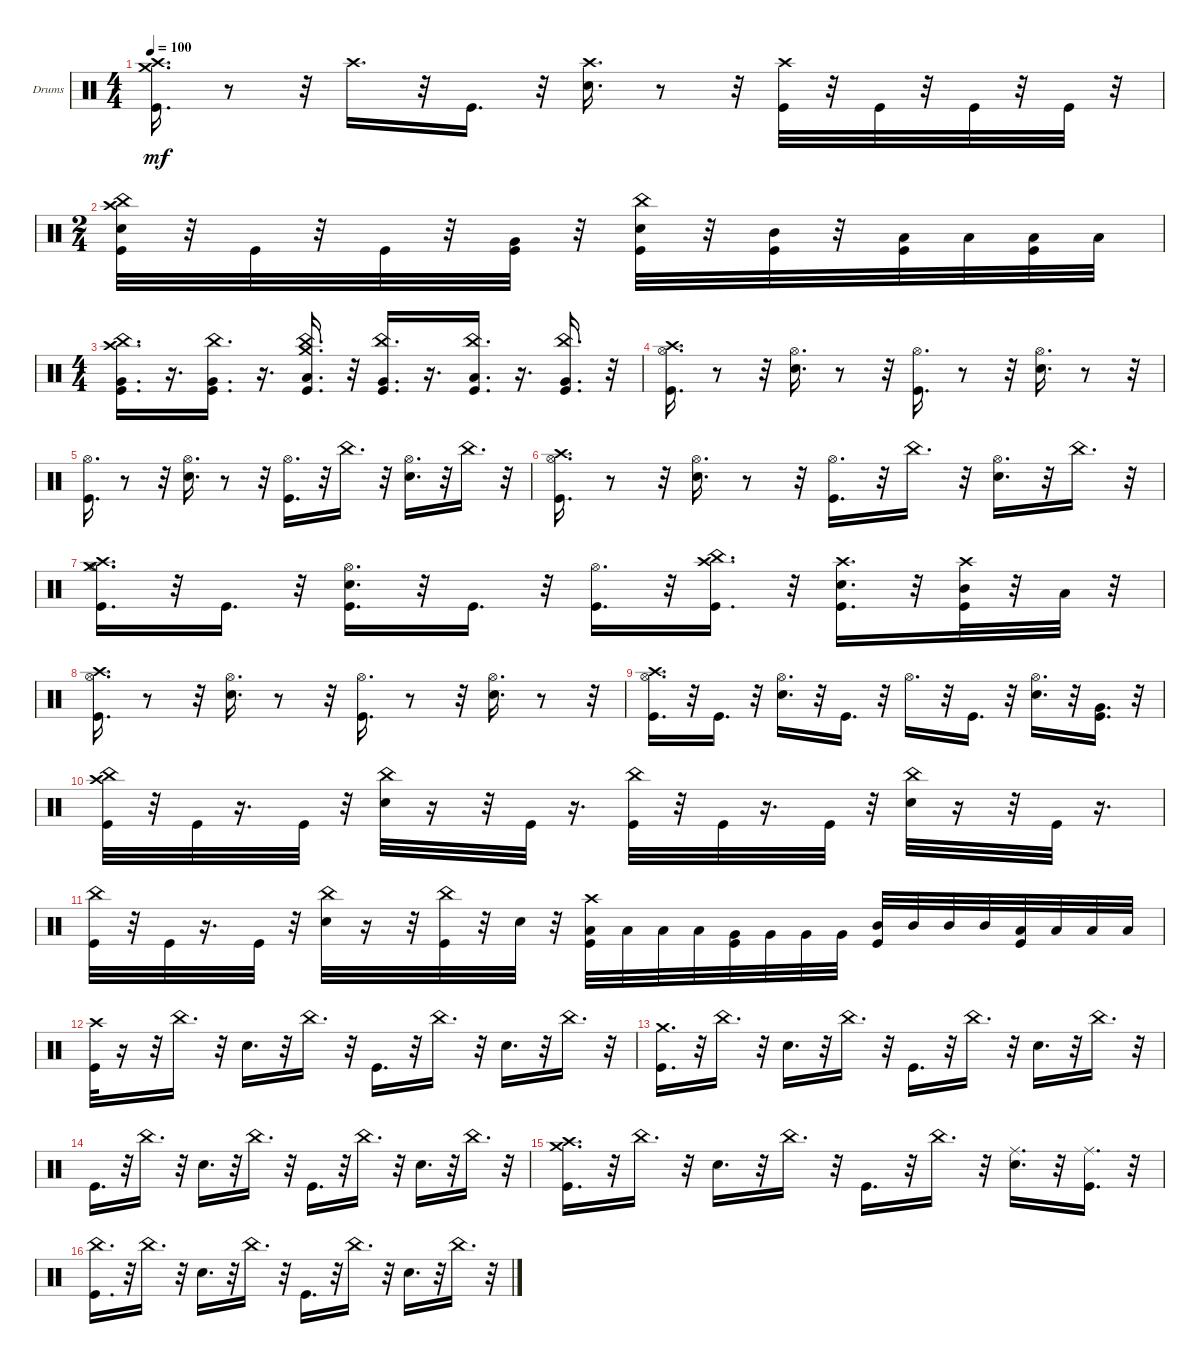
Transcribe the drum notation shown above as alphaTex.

\bracketExtendMode groupsimilarinstruments
\firstSystemTrackNameOrientation horizontal
\otherSystemsTrackNameOrientation horizontal
\track ("Drums" "Drums") {instrument percussion}
\staff {score}
\articulation defaults
\ts (4 4)
\tempo 100
\clef neutral
\ks c
("Crash high (hit)" "Kick (hit)" "Crash medium (hit)").16{d dy mf} r.8 r.32 "Crash high (hit)".16{d} r.32 "Kick (hit)".16{d} r.32 ("Crash high (hit)" "Snare (hit) 2").16{d} r.8 r.32 ("Crash high (hit)" "Kick (hit)").32 r.32 "Kick (hit)".32 r.32 "Kick (hit)".32 r.32 "Kick (hit)".32 r.32 |
\ts (2 4)
("Crash high (hit)" "China (hit)" "Snare (hit) 2" "Kick (hit)").32 r.32 "Kick (hit)".32 r.32 "Kick (hit)".32 r.32 ("Very Low Tom (hit)" "Kick (hit)").32 r.32 ("China (hit)" "Snare (hit) 2" "Kick (hit)").32 r.32 ("Mid Tom (hit)" "Kick (hit)").32 r.32 ("Low Tom (hit)" "Kick (hit)").32 "Low Tom (hit)".32 ("Low Tom (hit)" "Kick (hit)").32 "Low Tom (hit)".32 |
\ts (4 4)
("Crash high (hit)" "Very Low Tom (hit)" "China (hit)" "Kick (hit)").16{d} r.16{d} ("Very Low Tom (hit)" "China (hit)" "Kick (hit)").16{d} r.16{d} ("Low Tom (hit)" "China (hit)" "Kick (hit)" "Crash medium (hit)").16{d} r.32 ("Very Low Tom (hit)" "China (hit)" "Kick (hit)").16{d} r.16{d} ("Low Tom (hit)" "China (hit)" "Kick (hit)").16{d} r.16{d} ("Very Low Tom (hit)" "China (hit)" "Kick (hit)").16{d} r.32 |
("Hi-Hat (open)" "Crash high (hit)" "Kick (hit)").16{d} r.8 r.32 ("Hi-Hat (open)" "Snare (hit) 2").16{d} r.8 r.32 ("Hi-Hat (open)" "Kick (hit)").16{d} r.8 r.32 ("Hi-Hat (open)" "Snare (hit) 2").16{d} r.8 r.32 |
("Hi-Hat (open)" "Kick (hit)").16{d} r.8 r.32 ("Hi-Hat (open)" "Snare (hit) 2").16{d} r.8 r.32 ("Hi-Hat (open)" "Kick (hit)").16{d} r.32 "China (hit)".16{d} r.32 ("Hi-Hat (open)" "Snare (hit) 2").16{d} r.32 "China (hit)".16{d} r.32 |
("Kick (hit)" "Crash high (hit)" "Hi-Hat (open)").16{d} r.8 r.32 ("Snare (hit) 2" "Hi-Hat (open)").16{d} r.8 r.32 ("Kick (hit)" "Hi-Hat (open)").16{d} r.32 "China (hit)".16{d} r.32 ("Snare (hit) 2" "Hi-Hat (open)").16{d} r.32 "China (hit)".16{d} r.32 |
("Kick (hit)" "Crash high (hit)" "Hi-Hat (open)" "Crash medium (hit)").16{d} r.32 "Kick (hit)".16{d} r.32 ("Hi-Hat (open)" "Snare (hit) 2" "Kick (hit)").16{d} r.32 "Kick (hit)".16{d} r.32 ("Hi-Hat (open)" "Kick (hit)").16{d} r.32 ("Crash high (hit)" "Kick (hit)" "China (hit)").16{d} r.32 ("Crash high (hit)" "Snare (hit) 2" "Kick (hit)").16{d} r.32 ("Crash high (hit)" "Mid Tom (hit)" "Kick (hit)").32 r.32 "Low Tom (hit)".32 r.32 |
("Hi-Hat (open)" "Crash high (hit)" "Kick (hit)").16{d} r.8 r.32 ("Hi-Hat (open)" "Snare (hit) 2").16{d} r.8 r.32 ("Hi-Hat (open)" "Kick (hit)").16{d} r.8 r.32 ("Hi-Hat (open)" "Snare (hit) 2").16{d} r.8 r.32 |
("Hi-Hat (open)" "Crash high (hit)" "Kick (hit)").16{d} r.32 "Kick (hit)".16{d} r.32 ("Hi-Hat (open)" "Snare (hit) 2").16{d} r.32 "Kick (hit)".16{d} r.32 "Hi-Hat (open)".16{d} r.32 "Kick (hit)".16{d} r.32 ("Hi-Hat (open)" "Snare (hit) 2").16{d} r.32 ("Very Low Tom (hit)" "Kick (hit)").16{d} r.32 |
("Crash high (hit)" "China (hit)" "Kick (hit)").32 r.32 "Kick (hit)".32 r.16{d} "Kick (hit)".32 r.32 ("China (hit)" "Snare (hit) 2").32 r.16 r.32 "Kick (hit)".32 r.16{d} ("China (hit)" "Kick (hit)").32 r.32 "Kick (hit)".32 r.16{d} "Kick (hit)".32 r.32 ("China (hit)" "Snare (hit) 2").32 r.16 r.32 "Kick (hit)".32 r.16{d} |
("China (hit)" "Kick (hit)").32 r.32 "Kick (hit)".32 r.16{d} "Kick (hit)".32 r.32 ("China (hit)" "Snare (hit) 2").32 r.16 r.32 ("China (hit)" "Kick (hit)").32 r.32 "Snare (hit) 2".32 r.32 ("Crash high (hit)" "Low Tom (hit)" "Kick (hit)").32 "Low Tom (hit)".32 "Low Tom (hit)".32 "Low Tom (hit)".32 ("Very Low Tom (hit)" "Kick (hit)").32 "Very Low Tom (hit)".32 "Very Low Tom (hit)".32 "Very Low Tom (hit)".32 ("Mid Tom (hit)" "Kick (hit)").32 "Mid Tom (hit)".32 "Mid Tom (hit)".32 "Mid Tom (hit)".32 ("Kick (hit)" "Low Tom (hit)").32 "Low Tom (hit)".32 "Low Tom (hit)".32 "Low Tom (hit)".32 |
("Kick (hit)" "Crash high (hit)").32 r.16 r.32 "China (hit)".16{d} r.32 "Snare (hit) 2".16{d} r.32 "China (hit)".16{d} r.32 "Kick (hit)".16{d} r.32 "China (hit)".16{d} r.32 "Snare (hit) 2".16{d} r.32 "China (hit)".16{d} r.32 |
("Kick (hit)" "Crash medium (hit)").16{d} r.32 "China (hit)".16{d} r.32 "Snare (hit) 2".16{d} r.32 "China (hit)".16{d} r.32 "Kick (hit)".16{d} r.32 "China (hit)".16{d} r.32 "Snare (hit) 2".16{d} r.32 "China (hit)".16{d} r.32 |
"Kick (hit)".16{d} r.32 "China (hit)".16{d} r.32 "Snare (hit) 2".16{d} r.32 "China (hit)".16{d} r.32 "Kick (hit)".16{d} r.32 "China (hit)".16{d} r.32 "Snare (hit) 2".16{d} r.32 "China (hit)".16{d} r.32 |
("Crash high (hit)" "Kick (hit)" "Crash medium (hit)").16{d} r.32 "China (hit)".16{d} r.32 "Snare (hit) 2".16{d} r.32 "China (hit)".16{d} r.32 "Kick (hit)".16{d} r.32 "China (hit)".16{d} r.32 ("Ride (middle)" "Snare (hit) 2").16{d} r.32 ("Ride (middle)" "Kick (hit)").16{d} r.32 |
("China (hit)" "Kick (hit)").16{d} r.32 "China (hit)".16{d} r.32 "Snare (hit) 2".16{d} r.32 "China (hit)".16{d} r.32 "Kick (hit)".16{d} r.32 "China (hit)".16{d} r.32 "Snare (hit) 2".16{d} r.32 "China (hit)".16{d} r.32
